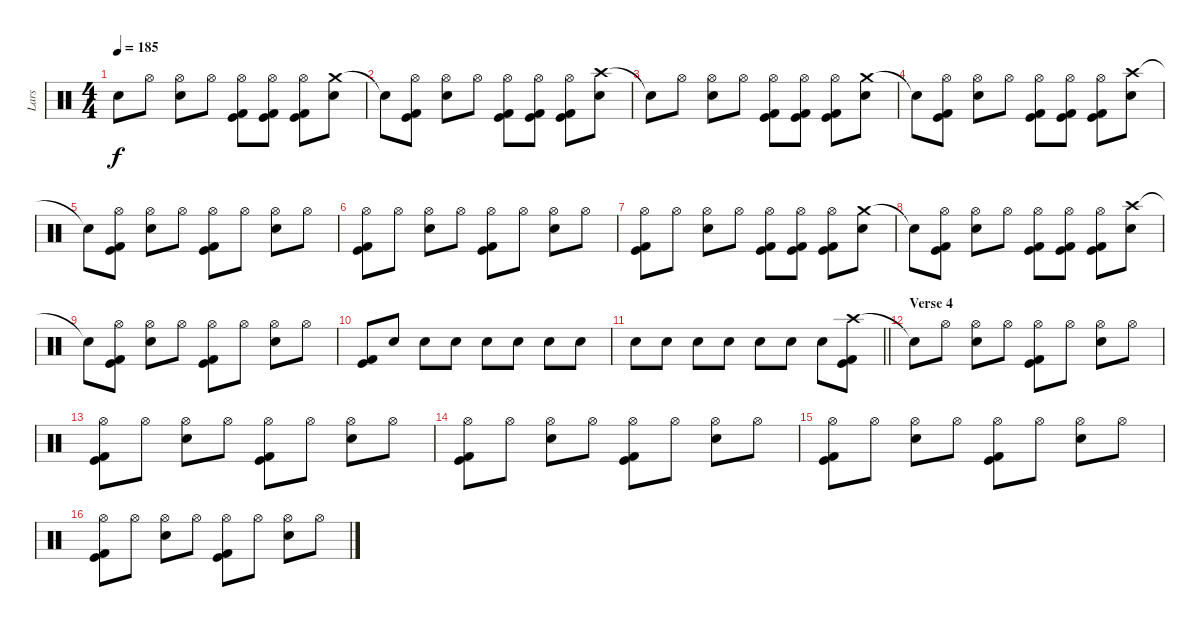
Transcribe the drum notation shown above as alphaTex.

\track ("Lars" "Lars") {instrument percussion}
\staff {score}
\articulation defaults
\ts (4 4)
\tempo 185
\clef neutral
\ks c "Snare (hit)"{t}.8{dy f} "Hi-Hat (open)".8
("Hi-Hat (open)" "Electric Snare (hit)").8 "Hi-Hat (open)".8 ("Hi-Hat (open)" "Kick (hit)" "Kick (hit) 2").8 ("Hi-Hat (open)" "Kick (hit)" "Kick (hit) 2").8 ("Hi-Hat (open)" "Kick (hit)" "Kick (hit) 2").8 ("Crash medium (hit)" "Electric Snare (hit)").8 |
"Snare (hit)"{t}.8 ("Hi-Hat (open)" "Kick (hit)" "Kick (hit) 2").8 ("Hi-Hat (open)" "Electric Snare (hit)").8 "Hi-Hat (open)".8 ("Hi-Hat (open)" "Kick (hit)" "Kick (hit) 2").8 ("Hi-Hat (open)" "Kick (hit)" "Kick (hit) 2").8 ("Hi-Hat (open)" "Kick (hit)" "Kick (hit) 2").8 ("Crash high (hit)" "Electric Snare (hit)").8 |
"Snare (hit)"{t}.8 "Hi-Hat (open)".8 ("Hi-Hat (open)" "Electric Snare (hit)").8 "Hi-Hat (open)".8 ("Hi-Hat (open)" "Kick (hit)" "Kick (hit) 2").8 ("Hi-Hat (open)" "Kick (hit)" "Kick (hit) 2").8 ("Hi-Hat (open)" "Kick (hit)" "Kick (hit) 2").8 ("Crash medium (hit)" "Electric Snare (hit)").8 |
"Snare (hit)"{t}.8 ("Hi-Hat (open)" "Kick (hit)" "Kick (hit) 2").8 ("Hi-Hat (open)" "Electric Snare (hit)").8 "Hi-Hat (open)".8 ("Hi-Hat (open)" "Kick (hit)" "Kick (hit) 2").8 ("Hi-Hat (open)" "Kick (hit)" "Kick (hit) 2").8 ("Hi-Hat (open)" "Kick (hit)" "Kick (hit) 2").8 ("Crash high (hit)" "Electric Snare (hit)").8 |
"Snare (hit)"{t}.8 ("Hi-Hat (open)" "Kick (hit)" "Kick (hit) 2").8 ("Hi-Hat (open)" "Electric Snare (hit)").8 "Hi-Hat (open)".8 ("Hi-Hat (open)" "Kick (hit)" "Kick (hit) 2").8 "Hi-Hat (open)".8 ("Hi-Hat (open)" "Electric Snare (hit)").8 "Hi-Hat (open)".8 |
("Hi-Hat (open)" "Kick (hit)" "Kick (hit) 2").8 "Hi-Hat (open)".8 ("Hi-Hat (open)" "Electric Snare (hit)").8 "Hi-Hat (open)".8 ("Hi-Hat (open)" "Kick (hit)" "Kick (hit) 2").8 "Hi-Hat (open)".8 ("Hi-Hat (open)" "Electric Snare (hit)").8 "Hi-Hat (open)".8 |
("Hi-Hat (open)" "Kick (hit)" "Kick (hit) 2").8 "Hi-Hat (open)".8 ("Hi-Hat (open)" "Electric Snare (hit)").8 "Hi-Hat (open)".8 ("Hi-Hat (open)" "Kick (hit)" "Kick (hit) 2").8 ("Hi-Hat (open)" "Kick (hit)" "Kick (hit) 2").8 ("Hi-Hat (open)" "Kick (hit)" "Kick (hit) 2").8 ("Crash medium (hit)" "Electric Snare (hit)").8 |
"Snare (hit)"{t}.8 ("Hi-Hat (open)" "Kick (hit)" "Kick (hit) 2").8 ("Hi-Hat (open)" "Electric Snare (hit)").8 "Hi-Hat (open)".8 ("Hi-Hat (open)" "Kick (hit)" "Kick (hit) 2").8 ("Hi-Hat (open)" "Kick (hit)" "Kick (hit) 2").8 ("Hi-Hat (open)" "Kick (hit)" "Kick (hit) 2").8 ("Crash high (hit)" "Electric Snare (hit)").8 |
"Snare (hit)"{t}.8 ("Hi-Hat (open)" "Kick (hit)" "Kick (hit) 2").8 ("Hi-Hat (open)" "Electric Snare (hit)").8 "Hi-Hat (open)".8 ("Hi-Hat (open)" "Kick (hit)" "Kick (hit) 2").8 "Hi-Hat (open)".8 ("Hi-Hat (open)" "Electric Snare (hit)").8 "Hi-Hat (open)".8 |
("Kick (hit)" "Kick (hit) 2").8 "Electric Snare (hit)".8 "Electric Snare (hit)".8 "Electric Snare (hit)".8 "Electric Snare (hit)".8 "Electric Snare (hit)".8 "Electric Snare (hit)".8 "Electric Snare (hit)".8 |
\barLineRight lightlight "Electric Snare (hit)".8 "Electric Snare (hit)".8 "Electric Snare (hit)".8 "Electric Snare (hit)".8 "Electric Snare (hit)".8 "Electric Snare (hit)".8 "Electric Snare (hit)".8
("Crash high (hit)" "Kick (hit)" "Kick (hit) 2").8 |
\section ("" "Verse 4")
"Snare (hit)"{t}.8 "Hi-Hat (open)".8 ("Hi-Hat (open)" "Electric Snare (hit)").8 "Hi-Hat (open)".8 ("Hi-Hat (open)" "Kick (hit)" "Kick (hit) 2").8 "Hi-Hat (open)".8 ("Hi-Hat (open)" "Electric Snare (hit)").8 "Hi-Hat (open)".8 |
("Hi-Hat (open)" "Kick (hit)" "Kick (hit) 2").8 "Hi-Hat (open)".8 ("Hi-Hat (open)" "Electric Snare (hit)").8 "Hi-Hat (open)".8 ("Hi-Hat (open)" "Kick (hit)" "Kick (hit) 2").8 "Hi-Hat (open)".8 ("Hi-Hat (open)" "Electric Snare (hit)").8 "Hi-Hat (open)".8 |
("Hi-Hat (open)" "Kick (hit)" "Kick (hit) 2").8 "Hi-Hat (open)".8 ("Hi-Hat (open)" "Electric Snare (hit)").8 "Hi-Hat (open)".8 ("Hi-Hat (open)" "Kick (hit)" "Kick (hit) 2").8 "Hi-Hat (open)".8 ("Hi-Hat (open)" "Electric Snare (hit)").8 "Hi-Hat (open)".8 |
("Hi-Hat (open)" "Kick (hit)" "Kick (hit) 2").8 "Hi-Hat (open)".8 ("Hi-Hat (open)" "Electric Snare (hit)").8 "Hi-Hat (open)".8 ("Hi-Hat (open)" "Kick (hit)" "Kick (hit) 2").8 "Hi-Hat (open)".8 ("Hi-Hat (open)" "Electric Snare (hit)").8 "Hi-Hat (open)".8 |
("Hi-Hat (open)" "Kick (hit)" "Kick (hit) 2").8 "Hi-Hat (open)".8 ("Hi-Hat (open)" "Electric Snare (hit)").8 "Hi-Hat (open)".8 ("Hi-Hat (open)" "Kick (hit)" "Kick (hit) 2").8 "Hi-Hat (open)".8 ("Hi-Hat (open)" "Electric Snare (hit)").8 "Hi-Hat (open)".8
